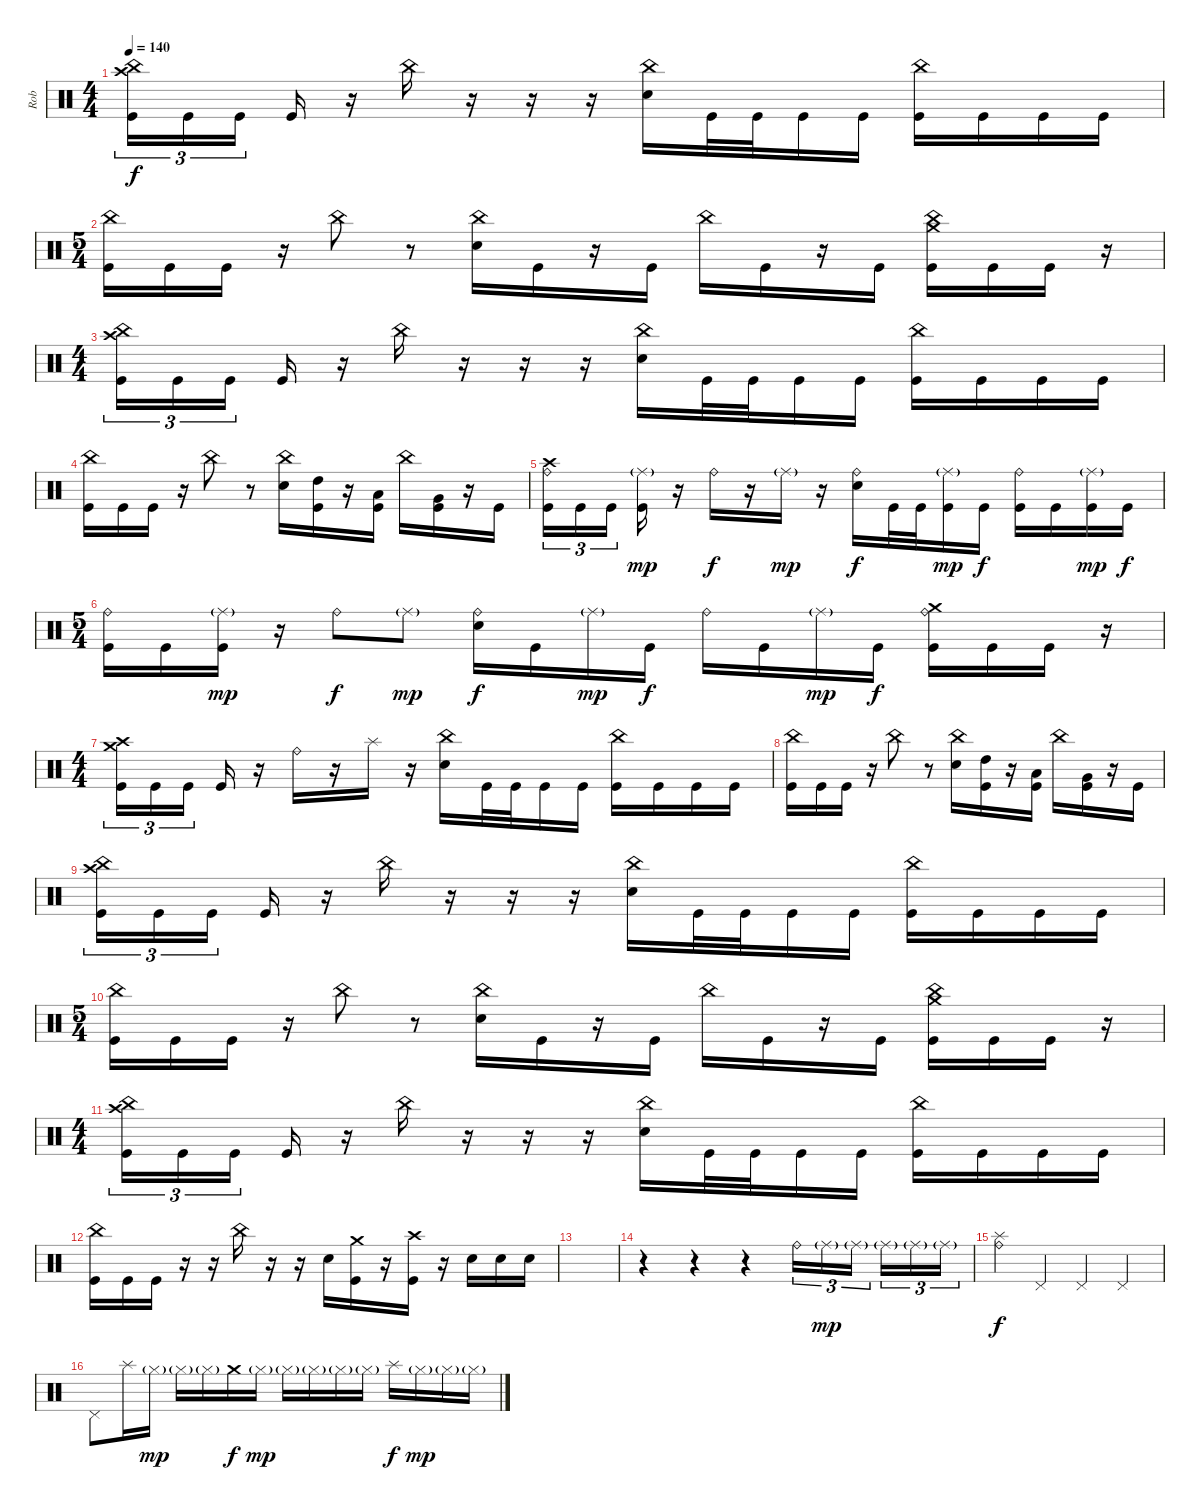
\track ("Rob" "Rob") {instrument percussion}
\staff {score}
\articulation defaults
\ts (4 4)
\tempo 140
\clef neutral
\ks c
("Crash high (hit)" "China (hit)" "Kick (hit)").16{tu (3 2) dy f} "Kick (hit)".16{tu (3 2)} "Kick (hit)".16{tu (3 2) beam splitsecondary} "Kick (hit)".16 r.16 "China (hit)".16 r.16 r.16 r.16 ("Electric Snare (hit)" "China (hit)").16 "Kick (hit)".32 "Kick (hit)".32 "Kick (hit)".16 "Kick (hit)".16 ("China (hit)" "Kick (hit)").16 "Kick (hit)".16 "Kick (hit)".16 "Kick (hit)".16 |
\ts (5 4)
("China (hit)" "Kick (hit)").16 "Kick (hit)".16 "Kick (hit)".16 r.16 "China (hit)".8 r.8 ("Electric Snare (hit)" "China (hit)").16 "Kick (hit)".16 r.16 "Kick (hit)".16 "China (hit)".16 "Kick (hit)".16 r.16 "Kick (hit)".16 ("Crash medium (hit)" "China (hit)" "Kick (hit)").16 "Kick (hit)".16 "Kick (hit)".16 r.16 |
\ts (4 4)
("Crash high (hit)" "China (hit)" "Kick (hit)").16{tu (3 2)} "Kick (hit)".16{tu (3 2)} "Kick (hit)".16{tu (3 2) beam splitsecondary} "Kick (hit)".16 r.16 "China (hit)".16 r.16 r.16 r.16 ("Electric Snare (hit)" "China (hit)").16 "Kick (hit)".32 "Kick (hit)".32 "Kick (hit)".16 "Kick (hit)".16 ("China (hit)" "Kick (hit)").16 "Kick (hit)".16 "Kick (hit)".16 "Kick (hit)".16 |
("China (hit)" "Kick (hit)").16 "Kick (hit)".16 "Kick (hit)".16 r.16 "China (hit)".8 r.8 ("Electric Snare (hit)" "China (hit)").16 ("High Tom (hit)" "Kick (hit)").16 r.16 ("Low Tom (hit)" "Kick (hit)").16 "China (hit)".16 ("Very Low Tom (hit)" "Kick (hit)").16 r.16 "Kick (hit)".16 |
("Crash high (hit)" "Ride (bell)" "Kick (hit)").16{tu (3 2)} "Kick (hit)".16{tu (3 2)} "Kick (hit)".16{tu (3 2) beam splitsecondary} ("Ride (middle)"{g} "Kick (hit)").16{dy mp} r.16 "Ride (bell)".16{dy f} r.16 "Ride (middle)"{g}.16{dy mp} r.16 ("Electric Snare (hit)" "Ride (bell)").16{dy f} "Kick (hit)".32 "Kick (hit)".32 ("Ride (middle)"{g} "Kick (hit)").16{dy mp} "Kick (hit)".16{dy f} ("Ride (bell)" "Kick (hit)").16 "Kick (hit)".16 ("Ride (middle)"{g} "Kick (hit)").16{dy mp} "Kick (hit)".16{dy f} |
\ts (5 4)
("Ride (bell)" "Kick (hit)").16 "Kick (hit)".16 ("Ride (middle)"{g} "Kick (hit)").16{dy mp} r.16 "Ride (bell)".8{dy f} "Ride (middle)"{g}.8{dy mp} ("Electric Snare (hit)" "Ride (bell)").16{dy f} "Kick (hit)".16 "Ride (middle)"{g}.16{dy mp} "Kick (hit)".16{dy f} "Ride (bell)".16 "Kick (hit)".16 "Ride (middle)"{g}.16{dy mp} "Kick (hit)".16{dy f} ("Crash medium (hit)" "Ride (bell)" "Kick (hit)").16 "Kick (hit)".16 "Kick (hit)".16 r.16 |
\ts (4 4)
("Crash high (hit)" "Crash medium (hit)" "Kick (hit)").16{tu (3 2)} "Kick (hit)".16{tu (3 2)} "Kick (hit)".16{tu (3 2) beam splitsecondary} "Kick (hit)".16 r.16 "Ride (bell)".16 r.16 "Splash (hit)".16 r.16 ("Electric Snare (hit)" "China (hit)").16 "Kick (hit)".32 "Kick (hit)".32 "Kick (hit)".16 "Kick (hit)".16 ("China (hit)" "Kick (hit)").16 "Kick (hit)".16 "Kick (hit)".16 "Kick (hit)".16 |
("China (hit)" "Kick (hit)").16 "Kick (hit)".16 "Kick (hit)".16 r.16 "China (hit)".8 r.8 ("Electric Snare (hit)" "China (hit)").16 ("High Tom (hit)" "Kick (hit)").16 r.16 ("Low Tom (hit)" "Kick (hit)").16 "China (hit)".16 ("Very Low Tom (hit)" "Kick (hit)").16 r.16 "Kick (hit)".16 |
("Crash high (hit)" "China (hit)" "Kick (hit)").16{tu (3 2)} "Kick (hit)".16{tu (3 2)} "Kick (hit)".16{tu (3 2) beam splitsecondary} "Kick (hit)".16 r.16 "China (hit)".16 r.16 r.16 r.16 ("Electric Snare (hit)" "China (hit)").16 "Kick (hit)".32 "Kick (hit)".32 "Kick (hit)".16 "Kick (hit)".16 ("China (hit)" "Kick (hit)").16 "Kick (hit)".16 "Kick (hit)".16 "Kick (hit)".16 |
\ts (5 4)
("China (hit)" "Kick (hit)").16 "Kick (hit)".16 "Kick (hit)".16 r.16 "China (hit)".8 r.8 ("Electric Snare (hit)" "China (hit)").16 "Kick (hit)".16 r.16 "Kick (hit)".16 "China (hit)".16 "Kick (hit)".16 r.16 "Kick (hit)".16 ("Crash medium (hit)" "China (hit)" "Kick (hit)").16 "Kick (hit)".16 "Kick (hit)".16 r.16 |
\ts (4 4)
("Crash high (hit)" "China (hit)" "Kick (hit)").16{tu (3 2)} "Kick (hit)".16{tu (3 2)} "Kick (hit)".16{tu (3 2) beam splitsecondary} "Kick (hit)".16 r.16 "China (hit)".16 r.16 r.16 r.16 ("Electric Snare (hit)" "China (hit)").16 "Kick (hit)".32 "Kick (hit)".32 "Kick (hit)".16 "Kick (hit)".16 ("China (hit)" "Kick (hit)").16 "Kick (hit)".16 "Kick (hit)".16 "Kick (hit)".16 |
("China (hit)" "Kick (hit)").16 "Kick (hit)".16 "Kick (hit)".16 r.16 r.16 "China (hit)".16 r.16 r.16 "Electric Snare (hit)".16 ("Crash medium (hit)" "Kick (hit)").16 r.16 ("Crash high (hit)" "Kick (hit)").16 r.16 "Electric Snare (hit)".16 "Electric Snare (hit)".16 "Electric Snare (hit)".16 |
|
r.4 r.4 r.4 "Ride (bell)".16{tu (3 2)} "Ride (middle)"{g}.16{tu (3 2) dy mp} "Ride (middle)"{g}.16{tu (3 2) beam splitsecondary} "Ride (middle)"{g}.16{tu (3 2)} "Ride (middle)"{g}.16{tu (3 2)} "Ride (middle)"{g}.16{tu (3 2)} |
("Splash (hit)" "Ride (bell)").4{dy f} "Pedal Hi-Hat (hit)".4 "Pedal Hi-Hat (hit)".4 "Pedal Hi-Hat (hit)".4 |
"Pedal Hi-Hat (hit)".8 "Splash (hit)".16 "Hi-Hat (closed)"{g}.16{dy mp} "Hi-Hat (closed)"{g}.16 "Hi-Hat (closed)"{g}.16 "Crash medium (hit)".16{dy f} "Hi-Hat (closed)"{g}.16{dy mp} "Hi-Hat (closed)"{g}.16 "Hi-Hat (closed)"{g}.16 "Hi-Hat (closed)"{g}.16 "Hi-Hat (closed)"{g}.16 "Splash (hit)".16{dy f} "Hi-Hat (closed)"{g}.16{dy mp} "Hi-Hat (closed)"{g}.16 "Hi-Hat (closed)"{g}.16
